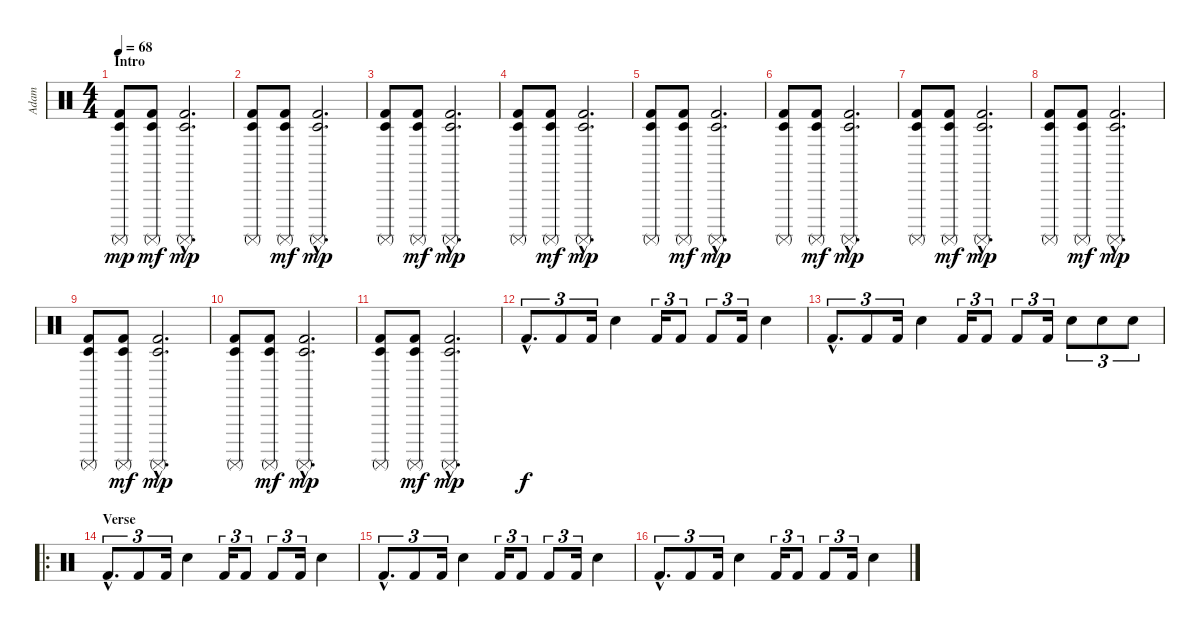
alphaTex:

\track ("Adam" "Adam") {instrument percussion}
\staff {score}
\articulation defaults
\ts (4 4)
\section ("" "Intro")
\tempo 68
\clef neutral
\ks c
("Timbale low (hit)" "Kick (hit) 2" "Surdo (mute)").8{dy mp} ("Timbale low (hit)" "Kick (hit) 2" "Surdo (mute)").8{dy mf} ("Timbale low (hit)"{hac} "Kick (hit) 2"{hac} "Surdo (mute)"{hac}).2{d dy mp} |
("Timbale low (hit)" "Kick (hit) 2" "Surdo (mute)").8 ("Timbale low (hit)" "Kick (hit) 2" "Surdo (mute)").8{dy mf} ("Timbale low (hit)"{hac} "Kick (hit) 2"{hac} "Surdo (mute)"{hac}).2{d dy mp} |
("Timbale low (hit)" "Kick (hit) 2" "Surdo (mute)").8 ("Timbale low (hit)" "Kick (hit) 2" "Surdo (mute)").8{dy mf} ("Timbale low (hit)"{hac} "Kick (hit) 2"{hac} "Surdo (mute)"{hac}).2{d dy mp} |
("Timbale low (hit)" "Kick (hit) 2" "Surdo (mute)").8 ("Timbale low (hit)" "Kick (hit) 2" "Surdo (mute)").8{dy mf} ("Timbale low (hit)"{hac} "Kick (hit) 2"{hac} "Surdo (mute)"{hac}).2{d dy mp} |
("Timbale low (hit)" "Kick (hit) 2" "Surdo (mute)").8 ("Timbale low (hit)" "Kick (hit) 2" "Surdo (mute)").8{dy mf} ("Timbale low (hit)"{hac} "Kick (hit) 2"{hac} "Surdo (mute)"{hac}).2{d dy mp} |
("Timbale low (hit)" "Kick (hit) 2" "Surdo (mute)").8 ("Timbale low (hit)" "Kick (hit) 2" "Surdo (mute)").8{dy mf} ("Timbale low (hit)"{hac} "Kick (hit) 2"{hac} "Surdo (mute)"{hac}).2{d dy mp} |
("Timbale low (hit)" "Kick (hit) 2" "Surdo (mute)").8 ("Timbale low (hit)" "Kick (hit) 2" "Surdo (mute)").8{dy mf} ("Timbale low (hit)"{hac} "Kick (hit) 2"{hac} "Surdo (mute)"{hac}).2{d dy mp} |
("Timbale low (hit)" "Kick (hit) 2" "Surdo (mute)").8 ("Timbale low (hit)" "Kick (hit) 2" "Surdo (mute)").8{dy mf} ("Timbale low (hit)"{hac} "Kick (hit) 2"{hac} "Surdo (mute)"{hac}).2{d dy mp} |
("Timbale low (hit)" "Kick (hit) 2" "Surdo (mute)").8 ("Timbale low (hit)" "Kick (hit) 2" "Surdo (mute)").8{dy mf} ("Timbale low (hit)"{hac} "Kick (hit) 2"{hac} "Surdo (mute)"{hac}).2{d dy mp} |
("Timbale low (hit)" "Kick (hit) 2" "Surdo (mute)").8 ("Timbale low (hit)" "Kick (hit) 2" "Surdo (mute)").8{dy mf} ("Timbale low (hit)"{hac} "Kick (hit) 2"{hac} "Surdo (mute)"{hac}).2{d dy mp} |
("Timbale low (hit)" "Kick (hit) 2" "Surdo (mute)").8 ("Timbale low (hit)" "Kick (hit) 2" "Surdo (mute)").8{dy mf} ("Timbale low (hit)"{hac} "Kick (hit) 2"{hac} "Surdo (mute)"{hac}).2{d dy mp} |
"Kick (hit) 2"{hac}.8{d tu (3 2) dy f} "Kick (hit) 2".8{tu (3 2)} "Kick (hit) 2".16{tu (3 2)} "Electric Snare (hit)".4 "Kick (hit) 2".16{tu (3 2)} "Kick (hit) 2".8{tu (3 2)} "Kick (hit) 2".8{tu (3 2)} "Kick (hit) 2".16{tu (3 2)} "Electric Snare (hit)".4 |
"Kick (hit) 2"{hac}.8{d tu (3 2)} "Kick (hit) 2".8{tu (3 2)} "Kick (hit) 2".16{tu (3 2)} "Electric Snare (hit)".4 "Kick (hit) 2".16{tu (3 2)} "Kick (hit) 2".8{tu (3 2)} "Kick (hit) 2".8{tu (3 2)} "Kick (hit) 2".16{tu (3 2)} "Electric Snare (hit)".8{tu (3 2)} "Electric Snare (hit)".8{tu (3 2)} "Electric Snare (hit)".8{tu (3 2)} |
\ro
\section ("" "Verse")
"Kick (hit) 2"{hac}.8{d tu (3 2)} "Kick (hit) 2".8{tu (3 2)} "Kick (hit) 2".16{tu (3 2)} "Electric Snare (hit)".4 "Kick (hit) 2".16{tu (3 2)} "Kick (hit) 2".8{tu (3 2)} "Kick (hit) 2".8{tu (3 2)} "Kick (hit) 2".16{tu (3 2)} "Electric Snare (hit)".4 |
"Kick (hit) 2"{hac}.8{d tu (3 2)} "Kick (hit) 2".8{tu (3 2)} "Kick (hit) 2".16{tu (3 2)} "Electric Snare (hit)".4 "Kick (hit) 2".16{tu (3 2)} "Kick (hit) 2".8{tu (3 2)} "Kick (hit) 2".8{tu (3 2)} "Kick (hit) 2".16{tu (3 2)} "Electric Snare (hit)".4 |
"Kick (hit) 2"{hac}.8{d tu (3 2)} "Kick (hit) 2".8{tu (3 2)} "Kick (hit) 2".16{tu (3 2)} "Electric Snare (hit)".4 "Kick (hit) 2".16{tu (3 2)} "Kick (hit) 2".8{tu (3 2)} "Kick (hit) 2".8{tu (3 2)} "Kick (hit) 2".16{tu (3 2)} "Electric Snare (hit)".4
